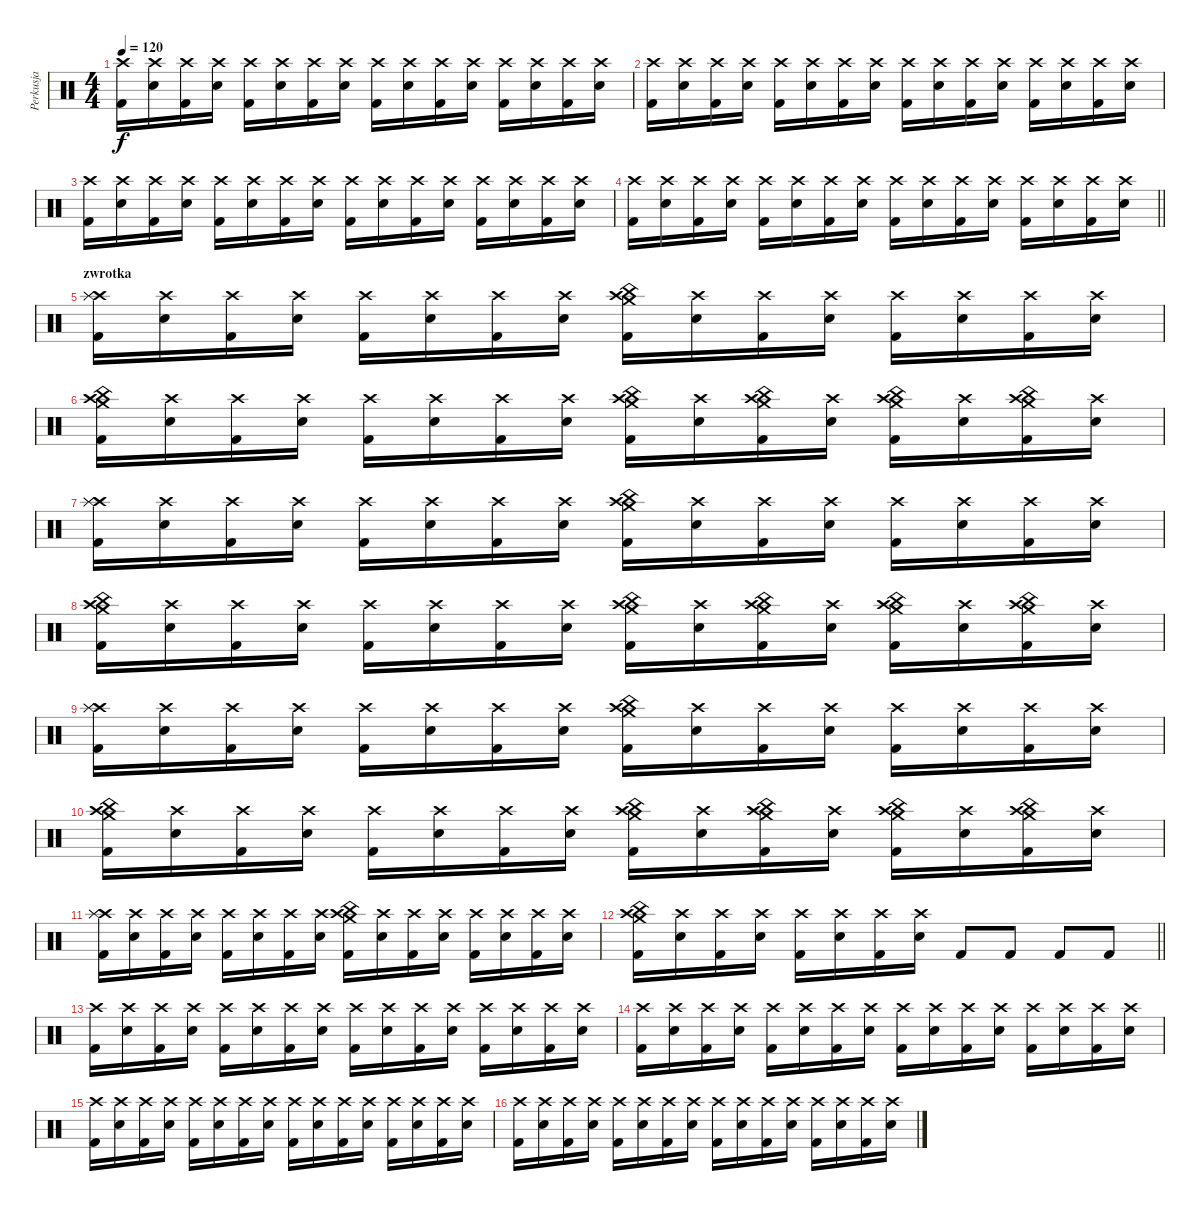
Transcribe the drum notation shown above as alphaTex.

\track ("Perkusja" "Perkusja") {instrument percussion}
\staff {score}
\articulation defaults
\ts (4 4)
\tempo 120
\clef neutral
\ks c
("Kick (hit) 2" "Crash high (hit)").16{dy f} ("Snare (hit) 2" "Crash high (hit)").16 ("Kick (hit) 2" "Crash high (hit)").16 ("Snare (hit) 2" "Crash high (hit)").16 ("Kick (hit) 2" "Crash high (hit)").16 ("Snare (hit) 2" "Crash high (hit)").16 ("Kick (hit) 2" "Crash high (hit)").16 ("Snare (hit) 2" "Crash high (hit)").16 ("Kick (hit) 2" "Crash high (hit)").16 ("Snare (hit) 2" "Crash high (hit)").16 ("Kick (hit) 2" "Crash high (hit)").16 ("Snare (hit) 2" "Crash high (hit)").16 ("Kick (hit) 2" "Crash high (hit)").16 ("Snare (hit) 2" "Crash high (hit)").16 ("Kick (hit) 2" "Crash high (hit)").16 ("Snare (hit) 2" "Crash high (hit)").16 |
("Kick (hit) 2" "Crash high (hit)").16 ("Snare (hit) 2" "Crash high (hit)").16 ("Kick (hit) 2" "Crash high (hit)").16 ("Snare (hit) 2" "Crash high (hit)").16 ("Kick (hit) 2" "Crash high (hit)").16 ("Snare (hit) 2" "Crash high (hit)").16 ("Kick (hit) 2" "Crash high (hit)").16 ("Snare (hit) 2" "Crash high (hit)").16 ("Kick (hit) 2" "Crash high (hit)").16 ("Snare (hit) 2" "Crash high (hit)").16 ("Kick (hit) 2" "Crash high (hit)").16 ("Snare (hit) 2" "Crash high (hit)").16 ("Kick (hit) 2" "Crash high (hit)").16 ("Snare (hit) 2" "Crash high (hit)").16 ("Kick (hit) 2" "Crash high (hit)").16 ("Snare (hit) 2" "Crash high (hit)").16 |
("Kick (hit) 2" "Crash high (hit)").16 ("Snare (hit) 2" "Crash high (hit)").16 ("Kick (hit) 2" "Crash high (hit)").16 ("Snare (hit) 2" "Crash high (hit)").16 ("Kick (hit) 2" "Crash high (hit)").16 ("Snare (hit) 2" "Crash high (hit)").16 ("Kick (hit) 2" "Crash high (hit)").16 ("Snare (hit) 2" "Crash high (hit)").16 ("Kick (hit) 2" "Crash high (hit)").16 ("Snare (hit) 2" "Crash high (hit)").16 ("Kick (hit) 2" "Crash high (hit)").16 ("Snare (hit) 2" "Crash high (hit)").16 ("Kick (hit) 2" "Crash high (hit)").16 ("Snare (hit) 2" "Crash high (hit)").16 ("Kick (hit) 2" "Crash high (hit)").16 ("Snare (hit) 2" "Crash high (hit)").16 |
\barLineRight lightlight
("Kick (hit) 2" "Crash high (hit)").16 ("Snare (hit) 2" "Crash high (hit)").16 ("Kick (hit) 2" "Crash high (hit)").16 ("Snare (hit) 2" "Crash high (hit)").16 ("Kick (hit) 2" "Crash high (hit)").16 ("Snare (hit) 2" "Crash high (hit)").16 ("Kick (hit) 2" "Crash high (hit)").16 ("Snare (hit) 2" "Crash high (hit)").16 ("Kick (hit) 2" "Crash high (hit)").16 ("Snare (hit) 2" "Crash high (hit)").16 ("Kick (hit) 2" "Crash high (hit)").16 ("Snare (hit) 2" "Crash high (hit)").16 ("Kick (hit) 2" "Crash high (hit)").16 ("Snare (hit) 2" "Crash high (hit)").16 ("Kick (hit) 2" "Crash high (hit)").16 ("Snare (hit) 2" "Crash high (hit)").16 |
\section ("" "zwrotka")
("Kick (hit) 2" "Crash high (hit)" "Splash (hit)" "Splash (hit)").16 ("Snare (hit) 2" "Crash high (hit)").16 ("Kick (hit) 2" "Crash high (hit)").16 ("Snare (hit) 2" "Crash high (hit)").16 ("Kick (hit) 2" "Crash high (hit)").16 ("Snare (hit) 2" "Crash high (hit)").16 ("Kick (hit) 2" "Crash high (hit)").16 ("Snare (hit) 2" "Crash high (hit)").16 ("Kick (hit) 2" "Crash high (hit)" "Crash medium (hit)" "China (hit)").16 ("Snare (hit) 2" "Crash high (hit)").16 ("Kick (hit) 2" "Crash high (hit)").16 ("Snare (hit) 2" "Crash high (hit)").16 ("Kick (hit) 2" "Crash high (hit)").16 ("Snare (hit) 2" "Crash high (hit)").16 ("Kick (hit) 2" "Crash high (hit)").16 ("Snare (hit) 2" "Crash high (hit)").16 |
("Kick (hit) 2" "Crash high (hit)" "Crash medium (hit)" "China (hit)").16 ("Snare (hit) 2" "Crash high (hit)").16 ("Kick (hit) 2" "Crash high (hit)").16 ("Snare (hit) 2" "Crash high (hit)").16 ("Kick (hit) 2" "Crash high (hit)").16 ("Snare (hit) 2" "Crash high (hit)").16 ("Kick (hit) 2" "Crash high (hit)").16 ("Snare (hit) 2" "Crash high (hit)").16 ("Kick (hit) 2" "Crash high (hit)" "Crash medium (hit)" "China (hit)").16 ("Snare (hit) 2" "Crash high (hit)").16 ("Kick (hit) 2" "Crash high (hit)" "Crash medium (hit)" "China (hit)").16 ("Snare (hit) 2" "Crash high (hit)").16 ("Kick (hit) 2" "Crash high (hit)" "Crash medium (hit)" "China (hit)").16 ("Snare (hit) 2" "Crash high (hit)").16 ("Kick (hit) 2" "Crash high (hit)" "Crash medium (hit)" "China (hit)").16 ("Snare (hit) 2" "Crash high (hit)").16 |
("Kick (hit) 2" "Crash high (hit)" "Splash (hit)" "Splash (hit)").16 ("Snare (hit) 2" "Crash high (hit)").16 ("Kick (hit) 2" "Crash high (hit)").16 ("Snare (hit) 2" "Crash high (hit)").16 ("Kick (hit) 2" "Crash high (hit)").16 ("Snare (hit) 2" "Crash high (hit)").16 ("Kick (hit) 2" "Crash high (hit)").16 ("Snare (hit) 2" "Crash high (hit)").16 ("Kick (hit) 2" "Crash high (hit)" "Crash medium (hit)" "China (hit)").16 ("Snare (hit) 2" "Crash high (hit)").16 ("Kick (hit) 2" "Crash high (hit)").16 ("Snare (hit) 2" "Crash high (hit)").16 ("Kick (hit) 2" "Crash high (hit)").16 ("Snare (hit) 2" "Crash high (hit)").16 ("Kick (hit) 2" "Crash high (hit)").16 ("Snare (hit) 2" "Crash high (hit)").16 |
("Kick (hit) 2" "Crash high (hit)" "Crash medium (hit)" "China (hit)").16 ("Snare (hit) 2" "Crash high (hit)").16 ("Kick (hit) 2" "Crash high (hit)").16 ("Snare (hit) 2" "Crash high (hit)").16 ("Kick (hit) 2" "Crash high (hit)").16 ("Snare (hit) 2" "Crash high (hit)").16 ("Kick (hit) 2" "Crash high (hit)").16 ("Snare (hit) 2" "Crash high (hit)").16 ("Kick (hit) 2" "Crash high (hit)" "Crash medium (hit)" "China (hit)").16 ("Snare (hit) 2" "Crash high (hit)").16 ("Kick (hit) 2" "Crash high (hit)" "Crash medium (hit)" "China (hit)").16 ("Snare (hit) 2" "Crash high (hit)").16 ("Kick (hit) 2" "Crash high (hit)" "Crash medium (hit)" "China (hit)").16 ("Snare (hit) 2" "Crash high (hit)").16 ("Kick (hit) 2" "Crash high (hit)" "Crash medium (hit)" "China (hit)").16 ("Snare (hit) 2" "Crash high (hit)").16 |
("Kick (hit) 2" "Crash high (hit)" "Splash (hit)" "Splash (hit)").16 ("Snare (hit) 2" "Crash high (hit)").16 ("Kick (hit) 2" "Crash high (hit)").16 ("Snare (hit) 2" "Crash high (hit)").16 ("Kick (hit) 2" "Crash high (hit)").16 ("Snare (hit) 2" "Crash high (hit)").16 ("Kick (hit) 2" "Crash high (hit)").16 ("Snare (hit) 2" "Crash high (hit)").16 ("Kick (hit) 2" "Crash high (hit)" "Crash medium (hit)" "China (hit)").16 ("Snare (hit) 2" "Crash high (hit)").16 ("Kick (hit) 2" "Crash high (hit)").16 ("Snare (hit) 2" "Crash high (hit)").16 ("Kick (hit) 2" "Crash high (hit)").16 ("Snare (hit) 2" "Crash high (hit)").16 ("Kick (hit) 2" "Crash high (hit)").16 ("Snare (hit) 2" "Crash high (hit)").16 |
("Kick (hit) 2" "Crash high (hit)" "Crash medium (hit)" "China (hit)").16 ("Snare (hit) 2" "Crash high (hit)").16 ("Kick (hit) 2" "Crash high (hit)").16 ("Snare (hit) 2" "Crash high (hit)").16 ("Kick (hit) 2" "Crash high (hit)").16 ("Snare (hit) 2" "Crash high (hit)").16 ("Kick (hit) 2" "Crash high (hit)").16 ("Snare (hit) 2" "Crash high (hit)").16 ("Kick (hit) 2" "Crash high (hit)" "Crash medium (hit)" "China (hit)").16 ("Snare (hit) 2" "Crash high (hit)").16 ("Kick (hit) 2" "Crash high (hit)" "Crash medium (hit)" "China (hit)").16 ("Snare (hit) 2" "Crash high (hit)").16 ("Kick (hit) 2" "Crash high (hit)" "Crash medium (hit)" "China (hit)").16 ("Snare (hit) 2" "Crash high (hit)").16 ("Kick (hit) 2" "Crash high (hit)" "Crash medium (hit)" "China (hit)").16 ("Snare (hit) 2" "Crash high (hit)").16 |
("Kick (hit) 2" "Crash high (hit)" "Splash (hit)" "Splash (hit)").16 ("Snare (hit) 2" "Crash high (hit)").16 ("Kick (hit) 2" "Crash high (hit)").16 ("Snare (hit) 2" "Crash high (hit)").16 ("Kick (hit) 2" "Crash high (hit)").16 ("Snare (hit) 2" "Crash high (hit)").16 ("Kick (hit) 2" "Crash high (hit)").16 ("Snare (hit) 2" "Crash high (hit)").16 ("Kick (hit) 2" "Crash high (hit)" "Crash medium (hit)" "China (hit)").16 ("Snare (hit) 2" "Crash high (hit)").16 ("Kick (hit) 2" "Crash high (hit)").16 ("Snare (hit) 2" "Crash high (hit)").16 ("Kick (hit) 2" "Crash high (hit)").16 ("Snare (hit) 2" "Crash high (hit)").16 ("Kick (hit) 2" "Crash high (hit)").16 ("Snare (hit) 2" "Crash high (hit)").16 |
\barLineRight lightlight
("Kick (hit) 2" "Crash high (hit)" "Crash medium (hit)" "China (hit)").16 ("Snare (hit) 2" "Crash high (hit)").16 ("Kick (hit) 2" "Crash high (hit)").16 ("Snare (hit) 2" "Crash high (hit)").16 ("Kick (hit) 2" "Crash high (hit)").16 ("Snare (hit) 2" "Crash high (hit)").16 ("Kick (hit) 2" "Crash high (hit)").16 ("Snare (hit) 2" "Crash high (hit)").16 "Kick (hit) 2".8 "Kick (hit) 2".8 "Kick (hit) 2".8 "Kick (hit) 2".8 |
("Kick (hit) 2" "Crash high (hit)").16 ("Snare (hit) 2" "Crash high (hit)").16 ("Kick (hit) 2" "Crash high (hit)").16 ("Snare (hit) 2" "Crash high (hit)").16 ("Kick (hit) 2" "Crash high (hit)").16 ("Snare (hit) 2" "Crash high (hit)").16 ("Kick (hit) 2" "Crash high (hit)").16 ("Snare (hit) 2" "Crash high (hit)").16 ("Kick (hit) 2" "Crash high (hit)").16 ("Snare (hit) 2" "Crash high (hit)").16 ("Kick (hit) 2" "Crash high (hit)").16 ("Snare (hit) 2" "Crash high (hit)").16 ("Kick (hit) 2" "Crash high (hit)").16 ("Snare (hit) 2" "Crash high (hit)").16 ("Kick (hit) 2" "Crash high (hit)").16 ("Snare (hit) 2" "Crash high (hit)").16 |
("Kick (hit) 2" "Crash high (hit)").16 ("Snare (hit) 2" "Crash high (hit)").16 ("Kick (hit) 2" "Crash high (hit)").16 ("Snare (hit) 2" "Crash high (hit)").16 ("Kick (hit) 2" "Crash high (hit)").16 ("Snare (hit) 2" "Crash high (hit)").16 ("Kick (hit) 2" "Crash high (hit)").16 ("Snare (hit) 2" "Crash high (hit)").16 ("Kick (hit) 2" "Crash high (hit)").16 ("Snare (hit) 2" "Crash high (hit)").16 ("Kick (hit) 2" "Crash high (hit)").16 ("Snare (hit) 2" "Crash high (hit)").16 ("Kick (hit) 2" "Crash high (hit)").16 ("Snare (hit) 2" "Crash high (hit)").16 ("Kick (hit) 2" "Crash high (hit)").16 ("Snare (hit) 2" "Crash high (hit)").16 |
("Kick (hit) 2" "Crash high (hit)").16 ("Snare (hit) 2" "Crash high (hit)").16 ("Kick (hit) 2" "Crash high (hit)").16 ("Snare (hit) 2" "Crash high (hit)").16 ("Kick (hit) 2" "Crash high (hit)").16 ("Snare (hit) 2" "Crash high (hit)").16 ("Kick (hit) 2" "Crash high (hit)").16 ("Snare (hit) 2" "Crash high (hit)").16 ("Kick (hit) 2" "Crash high (hit)").16 ("Snare (hit) 2" "Crash high (hit)").16 ("Kick (hit) 2" "Crash high (hit)").16 ("Snare (hit) 2" "Crash high (hit)").16 ("Kick (hit) 2" "Crash high (hit)").16 ("Snare (hit) 2" "Crash high (hit)").16 ("Kick (hit) 2" "Crash high (hit)").16 ("Snare (hit) 2" "Crash high (hit)").16 |
("Kick (hit) 2" "Crash high (hit)").16 ("Snare (hit) 2" "Crash high (hit)").16 ("Kick (hit) 2" "Crash high (hit)").16 ("Snare (hit) 2" "Crash high (hit)").16 ("Kick (hit) 2" "Crash high (hit)").16 ("Snare (hit) 2" "Crash high (hit)").16 ("Kick (hit) 2" "Crash high (hit)").16 ("Snare (hit) 2" "Crash high (hit)").16 ("Kick (hit) 2" "Crash high (hit)").16 ("Snare (hit) 2" "Crash high (hit)").16 ("Kick (hit) 2" "Crash high (hit)").16 ("Snare (hit) 2" "Crash high (hit)").16 ("Kick (hit) 2" "Crash high (hit)").16 ("Snare (hit) 2" "Crash high (hit)").16 ("Kick (hit) 2" "Crash high (hit)").16 ("Snare (hit) 2" "Crash high (hit)").16
